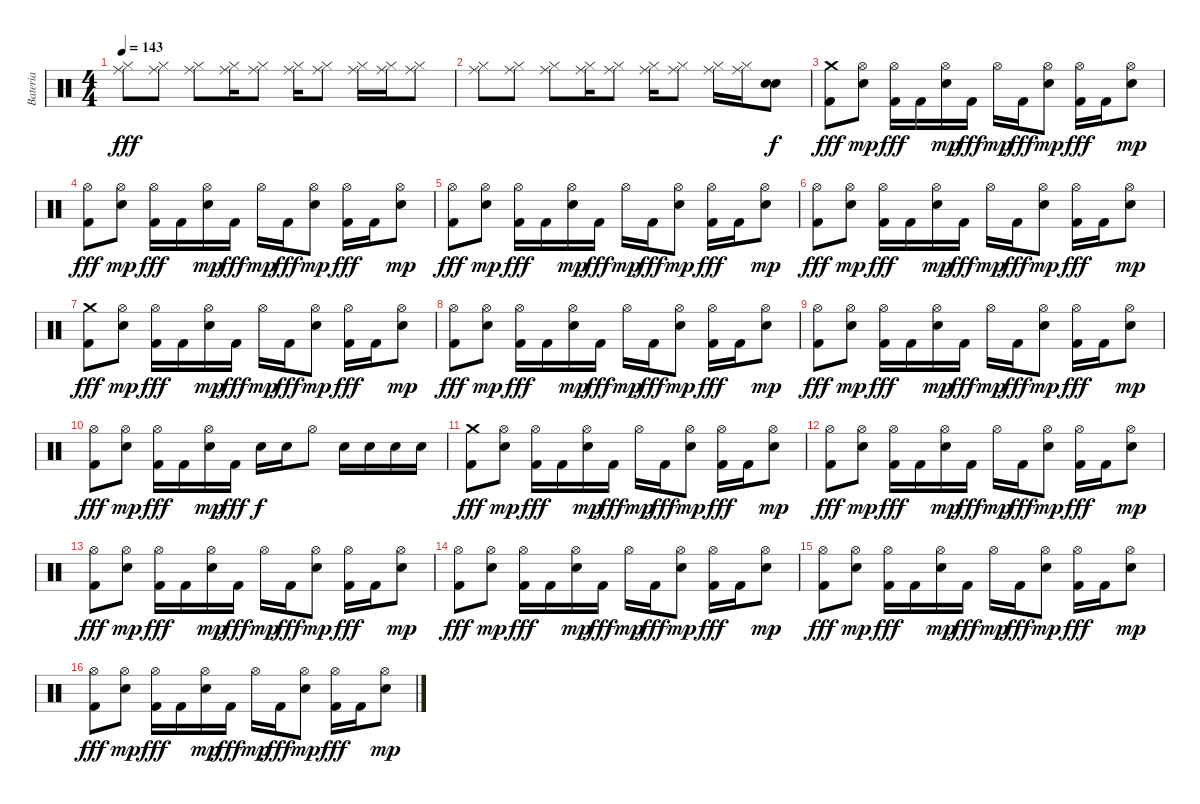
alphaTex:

\track ("Bateria" "Bateria") {instrument percussion}
\staff {score}
\articulation defaults
\ts (4 4)
\tempo 143
\clef neutral
\ks c
("Hi-Hat (closed)" "Ride (middle)").8{dy fff} ("Hi-Hat (closed)" "Ride (middle)").8 ("Hi-Hat (closed)" "Ride (middle)").8 ("Hi-Hat (closed)" "Ride (middle)").16 ("Hi-Hat (closed)" "Ride (middle)").8 ("Hi-Hat (closed)" "Ride (middle)").16 ("Hi-Hat (closed)" "Ride (middle)").8 ("Hi-Hat (closed)" "Ride (middle)").16 ("Hi-Hat (closed)" "Ride (middle)").16 ("Hi-Hat (closed)" "Ride (middle)").8 |
("Hi-Hat (closed)" "Ride (middle)").8 ("Hi-Hat (closed)" "Ride (middle)").8 ("Hi-Hat (closed)" "Ride (middle)").8 ("Hi-Hat (closed)" "Ride (middle)").16 ("Hi-Hat (closed)" "Ride (middle)").8 ("Hi-Hat (closed)" "Ride (middle)").16 ("Hi-Hat (closed)" "Ride (middle)").8 ("Hi-Hat (closed)" "Ride (middle)").16 ("Hi-Hat (closed)" "Ride (middle)").16 ("Electric Snare (hit)" "Electric Snare (hit)").8{dy f} |
("Crash medium (hit)" "Kick (hit) 2").8{dy fff} ("Hi-Hat (open)" "Electric Snare (hit)").8{dy mp} ("Hi-Hat (open)" "Kick (hit) 2").16{dy fff} "Kick (hit) 2".16 ("Hi-Hat (open)" "Electric Snare (hit)").16{dy mp} "Kick (hit) 2".16{dy fff} "Hi-Hat (open)".16{dy mp} "Kick (hit) 2".16{dy fff} ("Hi-Hat (open)" "Electric Snare (hit)").8{dy mp} ("Hi-Hat (open)" "Kick (hit) 2").16{dy fff} "Kick (hit) 2".16 ("Hi-Hat (open)" "Electric Snare (hit)").8{dy mp} |
("Hi-Hat (open)" "Kick (hit) 2").8{dy fff} ("Hi-Hat (open)" "Electric Snare (hit)").8{dy mp} ("Hi-Hat (open)" "Kick (hit) 2").16{dy fff} "Kick (hit) 2".16 ("Hi-Hat (open)" "Electric Snare (hit)").16{dy mp} "Kick (hit) 2".16{dy fff} "Hi-Hat (open)".16{dy mp} "Kick (hit) 2".16{dy fff} ("Hi-Hat (open)" "Electric Snare (hit)").8{dy mp} ("Hi-Hat (open)" "Kick (hit) 2").16{dy fff} "Kick (hit) 2".16 ("Hi-Hat (open)" "Electric Snare (hit)").8{dy mp} |
("Hi-Hat (open)" "Kick (hit) 2").8{dy fff} ("Hi-Hat (open)" "Electric Snare (hit)").8{dy mp} ("Hi-Hat (open)" "Kick (hit) 2").16{dy fff} "Kick (hit) 2".16 ("Hi-Hat (open)" "Electric Snare (hit)").16{dy mp} "Kick (hit) 2".16{dy fff} "Hi-Hat (open)".16{dy mp} "Kick (hit) 2".16{dy fff} ("Hi-Hat (open)" "Electric Snare (hit)").8{dy mp} ("Hi-Hat (open)" "Kick (hit) 2").16{dy fff} "Kick (hit) 2".16 ("Hi-Hat (open)" "Electric Snare (hit)").8{dy mp} |
("Hi-Hat (open)" "Kick (hit) 2").8{dy fff} ("Hi-Hat (open)" "Electric Snare (hit)").8{dy mp} ("Hi-Hat (open)" "Kick (hit) 2").16{dy fff} "Kick (hit) 2".16 ("Hi-Hat (open)" "Electric Snare (hit)").16{dy mp} "Kick (hit) 2".16{dy fff} "Hi-Hat (open)".16{dy mp} "Kick (hit) 2".16{dy fff} ("Hi-Hat (open)" "Electric Snare (hit)").8{dy mp} ("Hi-Hat (open)" "Kick (hit) 2").16{dy fff} "Kick (hit) 2".16 ("Hi-Hat (open)" "Electric Snare (hit)").8{dy mp} |
("Crash medium (hit)" "Kick (hit) 2").8{dy fff} ("Hi-Hat (open)" "Electric Snare (hit)").8{dy mp} ("Hi-Hat (open)" "Kick (hit) 2").16{dy fff} "Kick (hit) 2".16 ("Hi-Hat (open)" "Electric Snare (hit)").16{dy mp} "Kick (hit) 2".16{dy fff} "Hi-Hat (open)".16{dy mp} "Kick (hit) 2".16{dy fff} ("Hi-Hat (open)" "Electric Snare (hit)").8{dy mp} ("Hi-Hat (open)" "Kick (hit) 2").16{dy fff} "Kick (hit) 2".16 ("Hi-Hat (open)" "Electric Snare (hit)").8{dy mp} |
("Hi-Hat (open)" "Kick (hit) 2").8{dy fff} ("Hi-Hat (open)" "Electric Snare (hit)").8{dy mp} ("Hi-Hat (open)" "Kick (hit) 2").16{dy fff} "Kick (hit) 2".16 ("Hi-Hat (open)" "Electric Snare (hit)").16{dy mp} "Kick (hit) 2".16{dy fff} "Hi-Hat (open)".16{dy mp} "Kick (hit) 2".16{dy fff} ("Hi-Hat (open)" "Electric Snare (hit)").8{dy mp} ("Hi-Hat (open)" "Kick (hit) 2").16{dy fff} "Kick (hit) 2".16 ("Hi-Hat (open)" "Electric Snare (hit)").8{dy mp} |
("Hi-Hat (open)" "Kick (hit) 2").8{dy fff} ("Hi-Hat (open)" "Electric Snare (hit)").8{dy mp} ("Hi-Hat (open)" "Kick (hit) 2").16{dy fff} "Kick (hit) 2".16 ("Hi-Hat (open)" "Electric Snare (hit)").16{dy mp} "Kick (hit) 2".16{dy fff} "Hi-Hat (open)".16{dy mp} "Kick (hit) 2".16{dy fff} ("Hi-Hat (open)" "Electric Snare (hit)").8{dy mp} ("Hi-Hat (open)" "Kick (hit) 2").16{dy fff} "Kick (hit) 2".16 ("Hi-Hat (open)" "Electric Snare (hit)").8{dy mp} |
("Hi-Hat (open)" "Kick (hit) 2").8{dy fff} ("Hi-Hat (open)" "Electric Snare (hit)").8{dy mp} ("Hi-Hat (open)" "Kick (hit) 2").16{dy fff} "Kick (hit) 2".16 ("Hi-Hat (open)" "Electric Snare (hit)").16{dy mp} "Kick (hit) 2".16{dy fff} "Electric Snare (hit)".16{dy f} "Electric Snare (hit)".16 "Hi-Hat (open)".8 "Electric Snare (hit)".16 "Electric Snare (hit)".16 "Electric Snare (hit)".16 "Electric Snare (hit)".16 |
("Crash medium (hit)" "Kick (hit) 2").8{dy fff} ("Hi-Hat (open)" "Electric Snare (hit)").8{dy mp} ("Hi-Hat (open)" "Kick (hit) 2").16{dy fff} "Kick (hit) 2".16 ("Hi-Hat (open)" "Electric Snare (hit)").16{dy mp} "Kick (hit) 2".16{dy fff} "Hi-Hat (open)".16{dy mp} "Kick (hit) 2".16{dy fff} ("Hi-Hat (open)" "Electric Snare (hit)").8{dy mp} ("Hi-Hat (open)" "Kick (hit) 2").16{dy fff} "Kick (hit) 2".16 ("Hi-Hat (open)" "Electric Snare (hit)").8{dy mp} |
("Hi-Hat (open)" "Kick (hit) 2").8{dy fff} ("Hi-Hat (open)" "Electric Snare (hit)").8{dy mp} ("Hi-Hat (open)" "Kick (hit) 2").16{dy fff} "Kick (hit) 2".16 ("Hi-Hat (open)" "Electric Snare (hit)").16{dy mp} "Kick (hit) 2".16{dy fff} "Hi-Hat (open)".16{dy mp} "Kick (hit) 2".16{dy fff} ("Hi-Hat (open)" "Electric Snare (hit)").8{dy mp} ("Hi-Hat (open)" "Kick (hit) 2").16{dy fff} "Kick (hit) 2".16 ("Hi-Hat (open)" "Electric Snare (hit)").8{dy mp} |
("Hi-Hat (open)" "Kick (hit) 2").8{dy fff} ("Hi-Hat (open)" "Electric Snare (hit)").8{dy mp} ("Hi-Hat (open)" "Kick (hit) 2").16{dy fff} "Kick (hit) 2".16 ("Hi-Hat (open)" "Electric Snare (hit)").16{dy mp} "Kick (hit) 2".16{dy fff} "Hi-Hat (open)".16{dy mp} "Kick (hit) 2".16{dy fff} ("Hi-Hat (open)" "Electric Snare (hit)").8{dy mp} ("Hi-Hat (open)" "Kick (hit) 2").16{dy fff} "Kick (hit) 2".16 ("Hi-Hat (open)" "Electric Snare (hit)").8{dy mp} |
("Hi-Hat (open)" "Kick (hit) 2").8{dy fff} ("Hi-Hat (open)" "Electric Snare (hit)").8{dy mp} ("Hi-Hat (open)" "Kick (hit) 2").16{dy fff} "Kick (hit) 2".16 ("Hi-Hat (open)" "Electric Snare (hit)").16{dy mp} "Kick (hit) 2".16{dy fff} "Hi-Hat (open)".16{dy mp} "Kick (hit) 2".16{dy fff} ("Hi-Hat (open)" "Electric Snare (hit)").8{dy mp} ("Hi-Hat (open)" "Kick (hit) 2").16{dy fff} "Kick (hit) 2".16 ("Hi-Hat (open)" "Electric Snare (hit)").8{dy mp} |
("Hi-Hat (open)" "Kick (hit) 2").8{dy fff} ("Hi-Hat (open)" "Electric Snare (hit)").8{dy mp} ("Hi-Hat (open)" "Kick (hit) 2").16{dy fff} "Kick (hit) 2".16 ("Hi-Hat (open)" "Electric Snare (hit)").16{dy mp} "Kick (hit) 2".16{dy fff} "Hi-Hat (open)".16{dy mp} "Kick (hit) 2".16{dy fff} ("Hi-Hat (open)" "Electric Snare (hit)").8{dy mp} ("Hi-Hat (open)" "Kick (hit) 2").16{dy fff} "Kick (hit) 2".16 ("Hi-Hat (open)" "Electric Snare (hit)").8{dy mp} |
("Hi-Hat (open)" "Kick (hit) 2").8{dy fff} ("Hi-Hat (open)" "Electric Snare (hit)").8{dy mp} ("Hi-Hat (open)" "Kick (hit) 2").16{dy fff} "Kick (hit) 2".16 ("Hi-Hat (open)" "Electric Snare (hit)").16{dy mp} "Kick (hit) 2".16{dy fff} "Hi-Hat (open)".16{dy mp} "Kick (hit) 2".16{dy fff} ("Hi-Hat (open)" "Electric Snare (hit)").8{dy mp} ("Hi-Hat (open)" "Kick (hit) 2").16{dy fff} "Kick (hit) 2".16 ("Hi-Hat (open)" "Electric Snare (hit)").8{dy mp}
